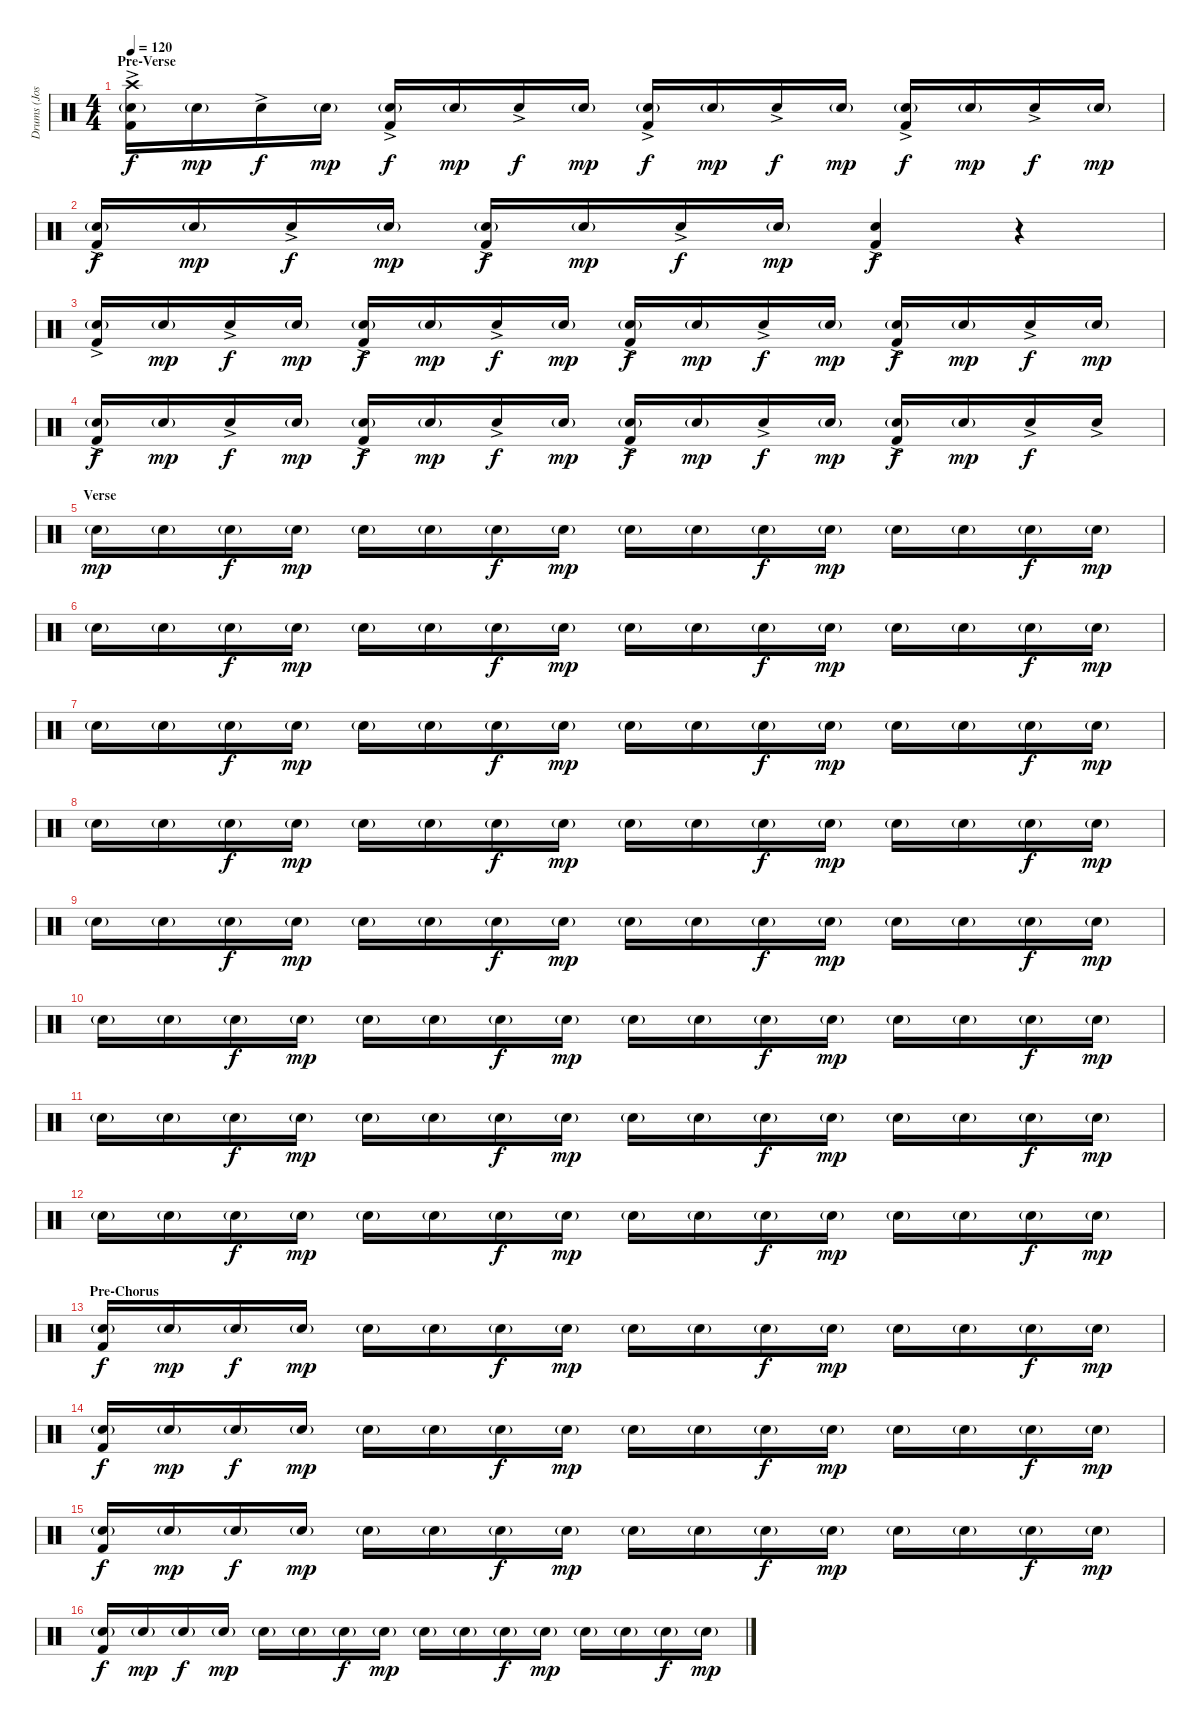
\track ("Drums (Josh Dun)" "Drums (Jos") {instrument percussion}
\staff {score}
\articulation defaults
\ts (4 4)
\section ("" "Pre-Verse")
\tempo 120
\clef neutral
\ks c
("Crash high (hit)"{ac} "Snare (hit) 2"{g} "Kick (hit) 2"{ac}).16{dy f} "Snare (hit) 2"{g}.16{dy mp} "Electric Snare (hit)"{ac}.16{dy f} "Snare (hit) 2"{g}.16{dy mp} ("Snare (hit) 2"{g} "Kick (hit) 2"{ac}).16{dy f} "Snare (hit) 2"{g}.16{dy mp} "Electric Snare (hit)"{ac}.16{dy f} "Snare (hit) 2"{g}.16{dy mp} ("Snare (hit) 2"{g} "Kick (hit) 2"{ac}).16{dy f} "Snare (hit) 2"{g}.16{dy mp} "Electric Snare (hit)"{ac}.16{dy f} "Snare (hit) 2"{g}.16{dy mp} ("Snare (hit) 2"{g} "Kick (hit) 2"{ac}).16{dy f} "Snare (hit) 2"{g}.16{dy mp} "Electric Snare (hit)"{ac}.16{dy f} "Snare (hit) 2"{g}.16{dy mp} |
("Snare (hit) 2"{g} "Kick (hit) 2"{ac}).16{dy f} "Snare (hit) 2"{g}.16{dy mp} "Electric Snare (hit)"{ac}.16{dy f} "Snare (hit) 2"{g}.16{dy mp} ("Snare (hit) 2"{g} "Kick (hit) 2"{ac}).16{dy f} "Snare (hit) 2"{g}.16{dy mp} "Electric Snare (hit)"{ac}.16{dy f} "Snare (hit) 2"{g}.16{dy mp} ("Electric Snare (hit)"{ac} "Kick (hit) 2"{ac}).4{dy f} r.4 |
("Snare (hit) 2"{g} "Kick (hit) 2"{ac}).16 "Snare (hit) 2"{g}.16{dy mp} "Electric Snare (hit)"{ac}.16{dy f} "Snare (hit) 2"{g}.16{dy mp} ("Snare (hit) 2"{g} "Kick (hit) 2"{ac}).16{dy f} "Snare (hit) 2"{g}.16{dy mp} "Electric Snare (hit)"{ac}.16{dy f} "Snare (hit) 2"{g}.16{dy mp} ("Snare (hit) 2"{g} "Kick (hit) 2"{ac}).16{dy f} "Snare (hit) 2"{g}.16{dy mp} "Electric Snare (hit)"{ac}.16{dy f} "Snare (hit) 2"{g}.16{dy mp} ("Snare (hit) 2"{g} "Kick (hit) 2"{ac}).16{dy f} "Snare (hit) 2"{g}.16{dy mp} "Electric Snare (hit)"{ac}.16{dy f} "Snare (hit) 2"{g}.16{dy mp} |
("Snare (hit) 2"{g} "Kick (hit) 2"{ac}).16{dy f} "Snare (hit) 2"{g}.16{dy mp} "Electric Snare (hit)"{ac}.16{dy f} "Snare (hit) 2"{g}.16{dy mp} ("Snare (hit) 2"{g} "Kick (hit) 2"{ac}).16{dy f} "Snare (hit) 2"{g}.16{dy mp} "Electric Snare (hit)"{ac}.16{dy f} "Snare (hit) 2"{g}.16{dy mp} ("Snare (hit) 2"{g} "Kick (hit) 2"{ac}).16{dy f} "Snare (hit) 2"{g}.16{dy mp} "Electric Snare (hit)"{ac}.16{dy f} "Snare (hit) 2"{g}.16{dy mp} ("Snare (hit) 2"{g} "Kick (hit) 2"{ac}).16{dy f} "Snare (hit) 2"{g}.16{dy mp} "Electric Snare (hit)"{ac}.16{dy f} "Snare (hit) 2"{ac}.16 |
\section ("" "Verse")
"Snare (hit) 2"{g}.16{dy mp} "Snare (hit) 2"{g}.16 "Electric Snare (hit)"{g}.16{dy f} "Snare (hit) 2"{g}.16{dy mp} "Snare (hit) 2"{g}.16 "Snare (hit) 2"{g}.16 "Electric Snare (hit)"{g}.16{dy f} "Snare (hit) 2"{g}.16{dy mp} "Snare (hit) 2"{g}.16 "Snare (hit) 2"{g}.16 "Electric Snare (hit)"{g}.16{dy f} "Snare (hit) 2"{g}.16{dy mp} "Snare (hit) 2"{g}.16 "Snare (hit) 2"{g}.16 "Electric Snare (hit)"{g}.16{dy f} "Snare (hit) 2"{g}.16{dy mp} |
"Snare (hit) 2"{g}.16 "Snare (hit) 2"{g}.16 "Electric Snare (hit)"{g}.16{dy f} "Snare (hit) 2"{g}.16{dy mp} "Snare (hit) 2"{g}.16 "Snare (hit) 2"{g}.16 "Electric Snare (hit)"{g}.16{dy f} "Snare (hit) 2"{g}.16{dy mp} "Snare (hit) 2"{g}.16 "Snare (hit) 2"{g}.16 "Electric Snare (hit)"{g}.16{dy f} "Snare (hit) 2"{g}.16{dy mp} "Snare (hit) 2"{g}.16 "Snare (hit) 2"{g}.16 "Electric Snare (hit)"{g}.16{dy f} "Snare (hit) 2"{g}.16{dy mp} |
"Snare (hit) 2"{g}.16 "Snare (hit) 2"{g}.16 "Electric Snare (hit)"{g}.16{dy f} "Snare (hit) 2"{g}.16{dy mp} "Snare (hit) 2"{g}.16 "Snare (hit) 2"{g}.16 "Electric Snare (hit)"{g}.16{dy f} "Snare (hit) 2"{g}.16{dy mp} "Snare (hit) 2"{g}.16 "Snare (hit) 2"{g}.16 "Electric Snare (hit)"{g}.16{dy f} "Snare (hit) 2"{g}.16{dy mp} "Snare (hit) 2"{g}.16 "Snare (hit) 2"{g}.16 "Electric Snare (hit)"{g}.16{dy f} "Snare (hit) 2"{g}.16{dy mp} |
"Snare (hit) 2"{g}.16 "Snare (hit) 2"{g}.16 "Electric Snare (hit)"{g}.16{dy f} "Snare (hit) 2"{g}.16{dy mp} "Snare (hit) 2"{g}.16 "Snare (hit) 2"{g}.16 "Electric Snare (hit)"{g}.16{dy f} "Snare (hit) 2"{g}.16{dy mp} "Snare (hit) 2"{g}.16 "Snare (hit) 2"{g}.16 "Electric Snare (hit)"{g}.16{dy f} "Snare (hit) 2"{g}.16{dy mp} "Snare (hit) 2"{g}.16 "Snare (hit) 2"{g}.16 "Electric Snare (hit)"{g}.16{dy f} "Snare (hit) 2"{g}.16{dy mp} |
"Snare (hit) 2"{g}.16 "Snare (hit) 2"{g}.16 "Electric Snare (hit)"{g}.16{dy f} "Snare (hit) 2"{g}.16{dy mp} "Snare (hit) 2"{g}.16 "Snare (hit) 2"{g}.16 "Electric Snare (hit)"{g}.16{dy f} "Snare (hit) 2"{g}.16{dy mp} "Snare (hit) 2"{g}.16 "Snare (hit) 2"{g}.16 "Electric Snare (hit)"{g}.16{dy f} "Snare (hit) 2"{g}.16{dy mp} "Snare (hit) 2"{g}.16 "Snare (hit) 2"{g}.16 "Electric Snare (hit)"{g}.16{dy f} "Snare (hit) 2"{g}.16{dy mp} |
"Snare (hit) 2"{g}.16 "Snare (hit) 2"{g}.16 "Electric Snare (hit)"{g}.16{dy f} "Snare (hit) 2"{g}.16{dy mp} "Snare (hit) 2"{g}.16 "Snare (hit) 2"{g}.16 "Electric Snare (hit)"{g}.16{dy f} "Snare (hit) 2"{g}.16{dy mp} "Snare (hit) 2"{g}.16 "Snare (hit) 2"{g}.16 "Electric Snare (hit)"{g}.16{dy f} "Snare (hit) 2"{g}.16{dy mp} "Snare (hit) 2"{g}.16 "Snare (hit) 2"{g}.16 "Electric Snare (hit)"{g}.16{dy f} "Snare (hit) 2"{g}.16{dy mp} |
"Snare (hit) 2"{g}.16 "Snare (hit) 2"{g}.16 "Electric Snare (hit)"{g}.16{dy f} "Snare (hit) 2"{g}.16{dy mp} "Snare (hit) 2"{g}.16 "Snare (hit) 2"{g}.16 "Electric Snare (hit)"{g}.16{dy f} "Snare (hit) 2"{g}.16{dy mp} "Snare (hit) 2"{g}.16 "Snare (hit) 2"{g}.16 "Electric Snare (hit)"{g}.16{dy f} "Snare (hit) 2"{g}.16{dy mp} "Snare (hit) 2"{g}.16 "Snare (hit) 2"{g}.16 "Electric Snare (hit)"{g}.16{dy f} "Snare (hit) 2"{g}.16{dy mp} |
"Snare (hit) 2"{g}.16 "Snare (hit) 2"{g}.16 "Electric Snare (hit)"{g}.16{dy f} "Snare (hit) 2"{g}.16{dy mp} "Snare (hit) 2"{g}.16 "Snare (hit) 2"{g}.16 "Electric Snare (hit)"{g}.16{dy f} "Snare (hit) 2"{g}.16{dy mp} "Snare (hit) 2"{g}.16 "Snare (hit) 2"{g}.16 "Electric Snare (hit)"{g}.16{dy f} "Snare (hit) 2"{g}.16{dy mp} "Snare (hit) 2"{g}.16 "Snare (hit) 2"{g}.16 "Electric Snare (hit)"{g}.16{dy f} "Snare (hit) 2"{g}.16{dy mp} |
\section ("" "Pre-Chorus")
("Snare (hit) 2"{g} "Kick (hit) 2").16{dy f} "Snare (hit) 2"{g}.16{dy mp} "Electric Snare (hit)"{g}.16{dy f} "Snare (hit) 2"{g}.16{dy mp} "Snare (hit) 2"{g}.16 "Snare (hit) 2"{g}.16 "Electric Snare (hit)"{g}.16{dy f} "Snare (hit) 2"{g}.16{dy mp} "Snare (hit) 2"{g}.16 "Snare (hit) 2"{g}.16 "Electric Snare (hit)"{g}.16{dy f} "Snare (hit) 2"{g}.16{dy mp} "Snare (hit) 2"{g}.16 "Snare (hit) 2"{g}.16 "Electric Snare (hit)"{g}.16{dy f} "Snare (hit) 2"{g}.16{dy mp} |
("Snare (hit) 2"{g} "Kick (hit) 2").16{dy f} "Snare (hit) 2"{g}.16{dy mp} "Electric Snare (hit)"{g}.16{dy f} "Snare (hit) 2"{g}.16{dy mp} "Snare (hit) 2"{g}.16 "Snare (hit) 2"{g}.16 "Electric Snare (hit)"{g}.16{dy f} "Snare (hit) 2"{g}.16{dy mp} "Snare (hit) 2"{g}.16 "Snare (hit) 2"{g}.16 "Electric Snare (hit)"{g}.16{dy f} "Snare (hit) 2"{g}.16{dy mp} "Snare (hit) 2"{g}.16 "Snare (hit) 2"{g}.16 "Electric Snare (hit)"{g}.16{dy f} "Snare (hit) 2"{g}.16{dy mp} |
("Snare (hit) 2"{g} "Kick (hit) 2").16{dy f} "Snare (hit) 2"{g}.16{dy mp} "Electric Snare (hit)"{g}.16{dy f} "Snare (hit) 2"{g}.16{dy mp} "Snare (hit) 2"{g}.16 "Snare (hit) 2"{g}.16 "Electric Snare (hit)"{g}.16{dy f} "Snare (hit) 2"{g}.16{dy mp} "Snare (hit) 2"{g}.16 "Snare (hit) 2"{g}.16 "Electric Snare (hit)"{g}.16{dy f} "Snare (hit) 2"{g}.16{dy mp} "Snare (hit) 2"{g}.16 "Snare (hit) 2"{g}.16 "Electric Snare (hit)"{g}.16{dy f} "Snare (hit) 2"{g}.16{dy mp} |
("Snare (hit) 2"{g} "Kick (hit) 2").16{dy f} "Snare (hit) 2"{g}.16{dy mp} "Electric Snare (hit)"{g}.16{dy f} "Snare (hit) 2"{g}.16{dy mp} "Snare (hit) 2"{g}.16 "Snare (hit) 2"{g}.16 "Electric Snare (hit)"{g}.16{dy f} "Snare (hit) 2"{g}.16{dy mp} "Snare (hit) 2"{g}.16 "Snare (hit) 2"{g}.16 "Electric Snare (hit)"{g}.16{dy f} "Snare (hit) 2"{g}.16{dy mp} "Snare (hit) 2"{g}.16 "Snare (hit) 2"{g}.16 "Electric Snare (hit)"{g}.16{dy f} "Snare (hit) 2"{g}.16{dy mp}
